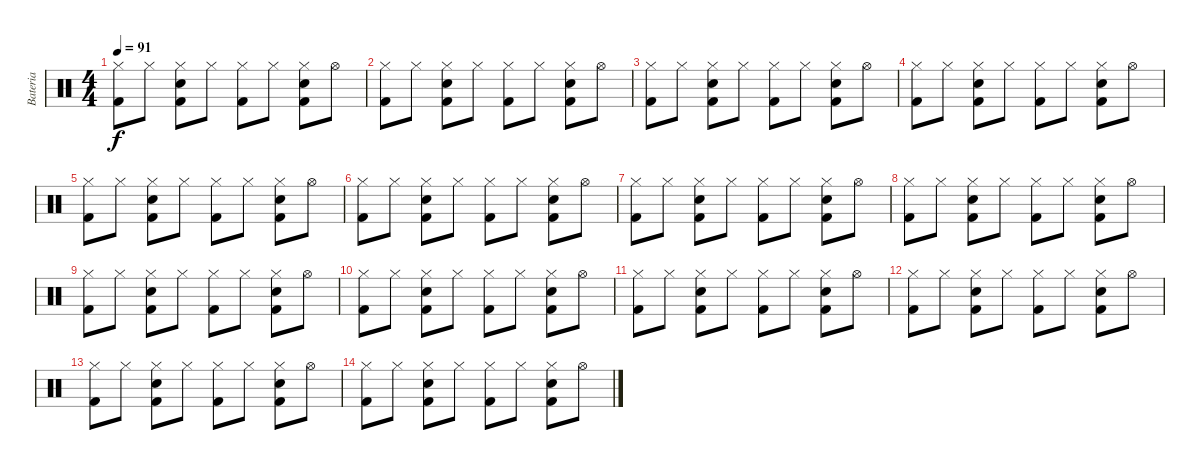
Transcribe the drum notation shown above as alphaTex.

\track ("Bateria" "Bateria") {instrument percussion}
\staff {score}
\articulation defaults
\ts (4 4)
\tempo 91
\clef neutral
\ks c
("Hi-Hat (closed)" "Kick (hit) 2").8{dy f} "Hi-Hat (closed)".8 ("Hi-Hat (closed)" "Electric Snare (hit)" "Kick (hit) 2").8 "Hi-Hat (closed)".8 ("Hi-Hat (closed)" "Kick (hit) 2").8 "Hi-Hat (closed)".8 ("Hi-Hat (closed)" "Electric Snare (hit)" "Kick (hit) 2").8 "Hi-Hat (open)".8 |
("Hi-Hat (closed)" "Kick (hit) 2").8 "Hi-Hat (closed)".8 ("Hi-Hat (closed)" "Electric Snare (hit)" "Kick (hit) 2").8 "Hi-Hat (closed)".8 ("Hi-Hat (closed)" "Kick (hit) 2").8 "Hi-Hat (closed)".8 ("Hi-Hat (closed)" "Electric Snare (hit)" "Kick (hit) 2").8 "Hi-Hat (open)".8 |
("Hi-Hat (closed)" "Kick (hit) 2").8 "Hi-Hat (closed)".8 ("Hi-Hat (closed)" "Electric Snare (hit)" "Kick (hit) 2").8 "Hi-Hat (closed)".8 ("Hi-Hat (closed)" "Kick (hit) 2").8 "Hi-Hat (closed)".8 ("Hi-Hat (closed)" "Electric Snare (hit)" "Kick (hit) 2").8 "Hi-Hat (open)".8 |
("Hi-Hat (closed)" "Kick (hit) 2").8 "Hi-Hat (closed)".8 ("Hi-Hat (closed)" "Electric Snare (hit)" "Kick (hit) 2").8 "Hi-Hat (closed)".8 ("Hi-Hat (closed)" "Kick (hit) 2").8 "Hi-Hat (closed)".8 ("Hi-Hat (closed)" "Electric Snare (hit)" "Kick (hit) 2").8 "Hi-Hat (open)".8 |
("Hi-Hat (closed)" "Kick (hit) 2").8 "Hi-Hat (closed)".8 ("Hi-Hat (closed)" "Electric Snare (hit)" "Kick (hit) 2").8 "Hi-Hat (closed)".8 ("Hi-Hat (closed)" "Kick (hit) 2").8 "Hi-Hat (closed)".8 ("Hi-Hat (closed)" "Electric Snare (hit)" "Kick (hit) 2").8 "Hi-Hat (open)".8 |
("Hi-Hat (closed)" "Kick (hit) 2").8 "Hi-Hat (closed)".8 ("Hi-Hat (closed)" "Electric Snare (hit)" "Kick (hit) 2").8 "Hi-Hat (closed)".8 ("Hi-Hat (closed)" "Kick (hit) 2").8 "Hi-Hat (closed)".8 ("Hi-Hat (closed)" "Electric Snare (hit)" "Kick (hit) 2").8 "Hi-Hat (open)".8 |
("Hi-Hat (closed)" "Kick (hit) 2").8 "Hi-Hat (closed)".8 ("Hi-Hat (closed)" "Electric Snare (hit)" "Kick (hit) 2").8 "Hi-Hat (closed)".8 ("Hi-Hat (closed)" "Kick (hit) 2").8 "Hi-Hat (closed)".8 ("Hi-Hat (closed)" "Electric Snare (hit)" "Kick (hit) 2").8 "Hi-Hat (open)".8 |
("Hi-Hat (closed)" "Kick (hit) 2").8 "Hi-Hat (closed)".8 ("Hi-Hat (closed)" "Electric Snare (hit)" "Kick (hit) 2").8 "Hi-Hat (closed)".8 ("Hi-Hat (closed)" "Kick (hit) 2").8 "Hi-Hat (closed)".8 ("Hi-Hat (closed)" "Electric Snare (hit)" "Kick (hit) 2").8 "Hi-Hat (open)".8 |
("Hi-Hat (closed)" "Kick (hit) 2").8 "Hi-Hat (closed)".8 ("Hi-Hat (closed)" "Electric Snare (hit)" "Kick (hit) 2").8 "Hi-Hat (closed)".8 ("Hi-Hat (closed)" "Kick (hit) 2").8 "Hi-Hat (closed)".8 ("Hi-Hat (closed)" "Electric Snare (hit)" "Kick (hit) 2").8 "Hi-Hat (open)".8 |
("Hi-Hat (closed)" "Kick (hit) 2").8 "Hi-Hat (closed)".8 ("Hi-Hat (closed)" "Electric Snare (hit)" "Kick (hit) 2").8 "Hi-Hat (closed)".8 ("Hi-Hat (closed)" "Kick (hit) 2").8 "Hi-Hat (closed)".8 ("Hi-Hat (closed)" "Electric Snare (hit)" "Kick (hit) 2").8 "Hi-Hat (open)".8 |
("Hi-Hat (closed)" "Kick (hit) 2").8 "Hi-Hat (closed)".8 ("Hi-Hat (closed)" "Electric Snare (hit)" "Kick (hit) 2").8 "Hi-Hat (closed)".8 ("Hi-Hat (closed)" "Kick (hit) 2").8 "Hi-Hat (closed)".8 ("Hi-Hat (closed)" "Electric Snare (hit)" "Kick (hit) 2").8 "Hi-Hat (open)".8 |
("Hi-Hat (closed)" "Kick (hit) 2").8 "Hi-Hat (closed)".8 ("Hi-Hat (closed)" "Electric Snare (hit)" "Kick (hit) 2").8 "Hi-Hat (closed)".8 ("Hi-Hat (closed)" "Kick (hit) 2").8 "Hi-Hat (closed)".8 ("Hi-Hat (closed)" "Electric Snare (hit)" "Kick (hit) 2").8 "Hi-Hat (open)".8 |
("Hi-Hat (closed)" "Kick (hit) 2").8 "Hi-Hat (closed)".8 ("Hi-Hat (closed)" "Electric Snare (hit)" "Kick (hit) 2").8 "Hi-Hat (closed)".8 ("Hi-Hat (closed)" "Kick (hit) 2").8 "Hi-Hat (closed)".8 ("Hi-Hat (closed)" "Electric Snare (hit)" "Kick (hit) 2").8 "Hi-Hat (open)".8 |
("Hi-Hat (closed)" "Kick (hit) 2").8 "Hi-Hat (closed)".8 ("Hi-Hat (closed)" "Electric Snare (hit)" "Kick (hit) 2").8 "Hi-Hat (closed)".8 ("Hi-Hat (closed)" "Kick (hit) 2").8 "Hi-Hat (closed)".8 ("Hi-Hat (closed)" "Electric Snare (hit)" "Kick (hit) 2").8 "Hi-Hat (open)".8
